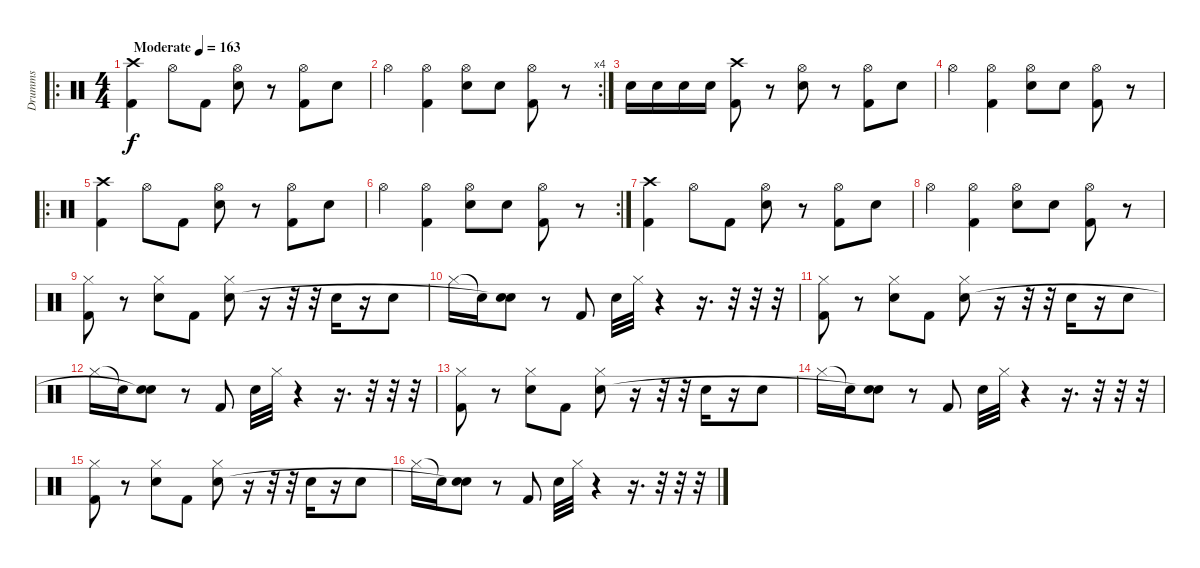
\track ("Drumms" "Drumms") {instrument percussion}
\staff {score}
\articulation defaults
\ro
\ts (4 4)
\tempo (163 "Moderate")
\clef neutral
\ks c
("Crash high (hit)" "Kick (hit) 2").4{dy f} "Hi-Hat (open)".8 "Kick (hit) 2".8 ("Hi-Hat (open)" "Snare (hit) 2").8 r.8 ("Hi-Hat (open)" "Kick (hit) 2").8 "Snare (hit) 2".8 |
\rc 4 "Hi-Hat (open)".4
("Hi-Hat (open)" "Kick (hit) 2").4 ("Hi-Hat (open)" "Snare (hit) 2").8 "Snare (hit) 2".8 ("Hi-Hat (open)" "Kick (hit) 2").8 r.8 |
"Snare (hit) 2".16 "Snare (hit) 2".16 "Snare (hit) 2".16 "Snare (hit) 2".16 ("Crash high (hit)" "Kick (hit) 2").8 r.8 ("Hi-Hat (open)" "Snare (hit) 2").8 r.8 ("Hi-Hat (open)" "Kick (hit) 2").8 "Snare (hit) 2".8 |
"Hi-Hat (open)".4 ("Hi-Hat (open)" "Kick (hit) 2").4 ("Hi-Hat (open)" "Snare (hit) 2").8 "Snare (hit) 2".8 ("Hi-Hat (open)" "Kick (hit) 2").8 r.8 |
\ro
("Crash high (hit)" "Kick (hit) 2").4 "Hi-Hat (open)".8 "Kick (hit) 2".8 ("Hi-Hat (open)" "Snare (hit) 2").8 r.8 ("Hi-Hat (open)" "Kick (hit) 2").8 "Snare (hit) 2".8 |
\rc 2 "Hi-Hat (open)".4
("Hi-Hat (open)" "Kick (hit) 2").4 ("Hi-Hat (open)" "Snare (hit) 2").8 "Snare (hit) 2".8 ("Hi-Hat (open)" "Kick (hit) 2").8 r.8 |
("Crash high (hit)" "Kick (hit) 2").4 "Hi-Hat (open)".8 "Kick (hit) 2".8 ("Hi-Hat (open)" "Snare (hit) 2").8 r.8 ("Hi-Hat (open)" "Kick (hit) 2").8 "Snare (hit) 2".8 |
"Hi-Hat (open)".4 ("Hi-Hat (open)" "Kick (hit) 2").4 ("Hi-Hat (open)" "Snare (hit) 2").8 "Snare (hit) 2".8 ("Hi-Hat (open)" "Kick (hit) 2").8 r.8 |
("Hi-Hat (closed)" "Kick (hit) 2").8 r.8 ("Hi-Hat (closed)" "Snare (hit) 2").8 "Kick (hit) 2".8 ("Hi-Hat (closed)" "Snare (hit) 2").8 r.16 r.32 r.32 "Snare (hit) 2".16 r.16 "Snare (hit) 2".8 |
"Hi-Hat (closed)".16 "Snare (hit)"{t}.16 ("Snare (hit) 2" "Snare (hit)"{t}).8 r.8 "Kick (hit) 2".8 "Snare (hit) 2".32 "Hi-Hat (closed)".32 r.4 r.16{d} r.32 r.32 r.32 |
("Hi-Hat (closed)" "Kick (hit) 2").8 r.8 ("Hi-Hat (closed)" "Snare (hit) 2").8 "Kick (hit) 2".8 ("Hi-Hat (closed)" "Snare (hit) 2").8 r.16 r.32 r.32 "Snare (hit) 2".16 r.16 "Snare (hit) 2".8 |
"Hi-Hat (closed)".16 "Snare (hit)"{t}.16 ("Snare (hit) 2" "Snare (hit)"{t}).8 r.8 "Kick (hit) 2".8 "Snare (hit) 2".32 "Hi-Hat (closed)".32 r.4 r.16{d} r.32 r.32 r.32 |
("Hi-Hat (closed)" "Kick (hit) 2").8 r.8 ("Hi-Hat (closed)" "Snare (hit) 2").8 "Kick (hit) 2".8 ("Hi-Hat (closed)" "Snare (hit) 2").8 r.16 r.32 r.32 "Snare (hit) 2".16 r.16 "Snare (hit) 2".8 |
"Hi-Hat (closed)".16 "Snare (hit)"{t}.16 ("Snare (hit) 2" "Snare (hit)"{t}).8 r.8 "Kick (hit) 2".8 "Snare (hit) 2".32 "Hi-Hat (closed)".32 r.4 r.16{d} r.32 r.32 r.32 |
("Hi-Hat (closed)" "Kick (hit) 2").8 r.8 ("Hi-Hat (closed)" "Snare (hit) 2").8 "Kick (hit) 2".8 ("Hi-Hat (closed)" "Snare (hit) 2").8 r.16 r.32 r.32 "Snare (hit) 2".16 r.16 "Snare (hit) 2".8 |
"Hi-Hat (closed)".16 "Snare (hit)"{t}.16 ("Snare (hit) 2" "Snare (hit)"{t}).8 r.8 "Kick (hit) 2".8 "Snare (hit) 2".32 "Hi-Hat (closed)".32 r.4 r.16{d} r.32 r.32 r.32
